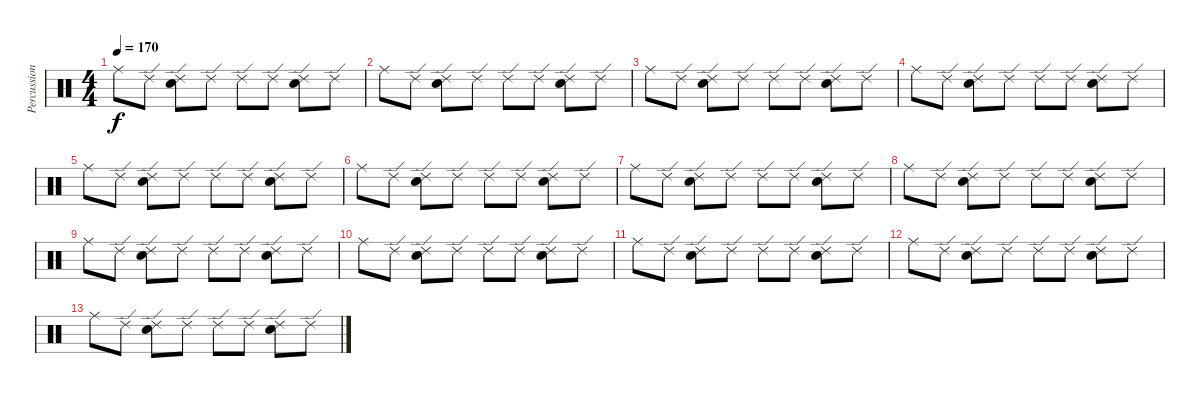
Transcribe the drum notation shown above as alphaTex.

\track ("Percussion" "Percussion") {instrument percussion}
\staff {score}
\articulation defaults
\ts (4 4)
\tempo 170
\clef neutral
\ks c "Ride (middle)".8{dy f} "Ride (edge) 2".8
("Ride (edge) 2" "Electric Snare (hit)").8 "Ride (edge) 2".8 "Ride (edge) 2".8 "Ride (edge) 2".8 ("Ride (edge) 2" "Electric Snare (hit)").8 "Ride (edge) 2".8 |
"Ride (middle)".8 "Ride (edge) 2".8 ("Ride (edge) 2" "Electric Snare (hit)").8 "Ride (edge) 2".8 "Ride (edge) 2".8 "Ride (edge) 2".8 ("Ride (edge) 2" "Electric Snare (hit)").8 "Ride (edge) 2".8 |
"Ride (middle)".8 "Ride (edge) 2".8 ("Ride (edge) 2" "Electric Snare (hit)").8 "Ride (edge) 2".8 "Ride (edge) 2".8 "Ride (edge) 2".8 ("Ride (edge) 2" "Electric Snare (hit)").8 "Ride (edge) 2".8 |
"Ride (middle)".8 "Ride (edge) 2".8 ("Ride (edge) 2" "Electric Snare (hit)").8 "Ride (edge) 2".8 "Ride (edge) 2".8 "Ride (edge) 2".8 ("Ride (edge) 2" "Electric Snare (hit)").8 "Ride (edge) 2".8 |
"Ride (middle)".8 "Ride (edge) 2".8 ("Ride (edge) 2" "Electric Snare (hit)").8 "Ride (edge) 2".8 "Ride (edge) 2".8 "Ride (edge) 2".8 ("Ride (edge) 2" "Electric Snare (hit)").8 "Ride (edge) 2".8 |
"Ride (middle)".8 "Ride (edge) 2".8 ("Ride (edge) 2" "Electric Snare (hit)").8 "Ride (edge) 2".8 "Ride (edge) 2".8 "Ride (edge) 2".8 ("Ride (edge) 2" "Electric Snare (hit)").8 "Ride (edge) 2".8 |
"Ride (middle)".8 "Ride (edge) 2".8 ("Ride (edge) 2" "Electric Snare (hit)").8 "Ride (edge) 2".8 "Ride (edge) 2".8 "Ride (edge) 2".8 ("Ride (edge) 2" "Electric Snare (hit)").8 "Ride (edge) 2".8 |
"Ride (middle)".8 "Ride (edge) 2".8 ("Ride (edge) 2" "Electric Snare (hit)").8 "Ride (edge) 2".8 "Ride (edge) 2".8 "Ride (edge) 2".8 ("Ride (edge) 2" "Electric Snare (hit)").8 "Ride (edge) 2".8 |
"Ride (middle)".8 "Ride (edge) 2".8 ("Ride (edge) 2" "Electric Snare (hit)").8 "Ride (edge) 2".8 "Ride (edge) 2".8 "Ride (edge) 2".8 ("Ride (edge) 2" "Electric Snare (hit)").8 "Ride (edge) 2".8 |
"Ride (middle)".8 "Ride (edge) 2".8 ("Ride (edge) 2" "Electric Snare (hit)").8 "Ride (edge) 2".8 "Ride (edge) 2".8 "Ride (edge) 2".8 ("Ride (edge) 2" "Electric Snare (hit)").8 "Ride (edge) 2".8 |
"Ride (middle)".8 "Ride (edge) 2".8 ("Ride (edge) 2" "Electric Snare (hit)").8 "Ride (edge) 2".8 "Ride (edge) 2".8 "Ride (edge) 2".8 ("Ride (edge) 2" "Electric Snare (hit)").8 "Ride (edge) 2".8 |
"Ride (middle)".8 "Ride (edge) 2".8 ("Ride (edge) 2" "Electric Snare (hit)").8 "Ride (edge) 2".8 "Ride (edge) 2".8 "Ride (edge) 2".8 ("Ride (edge) 2" "Electric Snare (hit)").8 "Ride (edge) 2".8 |
"Ride (middle)".8 "Ride (edge) 2".8 ("Ride (edge) 2" "Electric Snare (hit)").8 "Ride (edge) 2".8 "Ride (edge) 2".8 "Ride (edge) 2".8 ("Ride (edge) 2" "Electric Snare (hit)").8 "Ride (edge) 2".8
